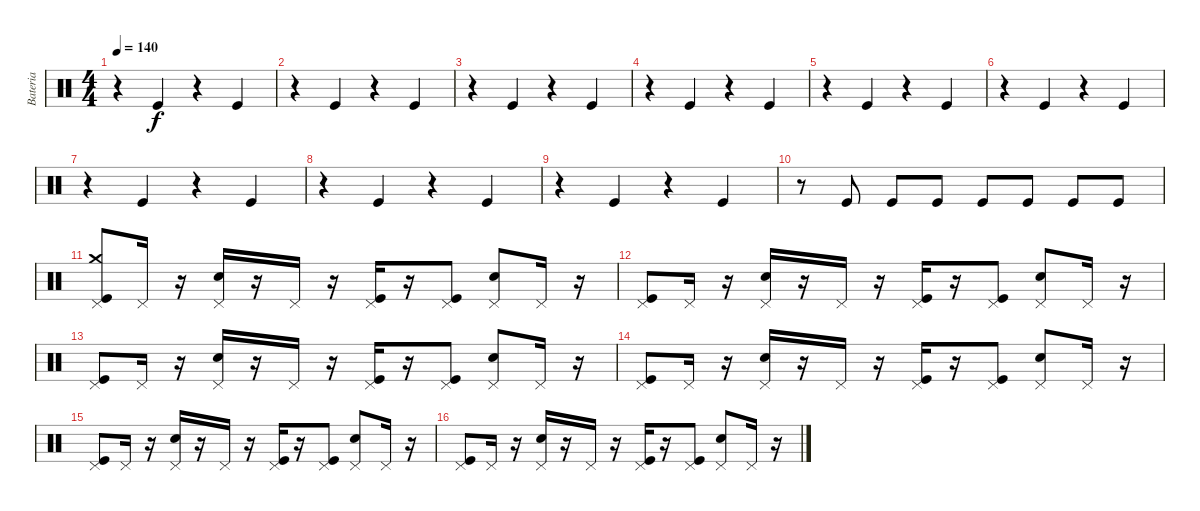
\track ("Bateria" "Bateria") {instrument percussion}
\staff {score}
\articulation defaults
\ts (4 4)
\tempo 140
\clef neutral
\ks c
r.4{dy f} "Kick (hit)".4 r.4 "Kick (hit)".4 |
r.4 "Kick (hit)".4 r.4 "Kick (hit)".4 |
r.4 "Kick (hit)".4 r.4 "Kick (hit)".4 |
r.4 "Kick (hit)".4 r.4 "Kick (hit)".4 |
r.4 "Kick (hit)".4 r.4 "Kick (hit)".4 |
r.4 "Kick (hit)".4 r.4 "Kick (hit)".4 |
r.4 "Kick (hit)".4 r.4 "Kick (hit)".4 |
r.4 "Kick (hit)".4 r.4 "Kick (hit)".4 |
r.4 "Kick (hit)".4 r.4 "Kick (hit)".4 |
r.8 "Kick (hit)".8 "Kick (hit)".8 "Kick (hit)".8 "Kick (hit)".8 "Kick (hit)".8 "Kick (hit)".8 "Kick (hit)".8 |
("Crash medium (hit)" "Pedal Hi-Hat (hit)" "Kick (hit)").8 "Pedal Hi-Hat (hit)".16 r.16 ("Pedal Hi-Hat (hit)" "Snare (hit) 2").16 r.16 "Pedal Hi-Hat (hit)".16 r.16 ("Pedal Hi-Hat (hit)" "Kick (hit)").16 r.16 ("Pedal Hi-Hat (hit)" "Kick (hit)").8 ("Pedal Hi-Hat (hit)" "Snare (hit) 2").8 "Pedal Hi-Hat (hit)".16 r.16 |
("Pedal Hi-Hat (hit)" "Kick (hit)").8 "Pedal Hi-Hat (hit)".16 r.16 ("Pedal Hi-Hat (hit)" "Snare (hit) 2").16 r.16 "Pedal Hi-Hat (hit)".16 r.16 ("Pedal Hi-Hat (hit)" "Kick (hit)").16 r.16 ("Pedal Hi-Hat (hit)" "Kick (hit)").8 ("Pedal Hi-Hat (hit)" "Snare (hit) 2").8 "Pedal Hi-Hat (hit)".16 r.16 |
("Pedal Hi-Hat (hit)" "Kick (hit)").8 "Pedal Hi-Hat (hit)".16 r.16 ("Pedal Hi-Hat (hit)" "Snare (hit) 2").16 r.16 "Pedal Hi-Hat (hit)".16 r.16 ("Pedal Hi-Hat (hit)" "Kick (hit)").16 r.16 ("Pedal Hi-Hat (hit)" "Kick (hit)").8 ("Pedal Hi-Hat (hit)" "Snare (hit) 2").8 "Pedal Hi-Hat (hit)".16 r.16 |
("Pedal Hi-Hat (hit)" "Kick (hit)").8 "Pedal Hi-Hat (hit)".16 r.16 ("Pedal Hi-Hat (hit)" "Snare (hit) 2").16 r.16 "Pedal Hi-Hat (hit)".16 r.16 ("Pedal Hi-Hat (hit)" "Kick (hit)").16 r.16 ("Pedal Hi-Hat (hit)" "Kick (hit)").8 ("Pedal Hi-Hat (hit)" "Snare (hit) 2").8 "Pedal Hi-Hat (hit)".16 r.16 |
("Pedal Hi-Hat (hit)" "Kick (hit)").8 "Pedal Hi-Hat (hit)".16 r.16 ("Pedal Hi-Hat (hit)" "Snare (hit) 2").16 r.16 "Pedal Hi-Hat (hit)".16 r.16 ("Pedal Hi-Hat (hit)" "Kick (hit)").16 r.16 ("Pedal Hi-Hat (hit)" "Kick (hit)").8 ("Pedal Hi-Hat (hit)" "Snare (hit) 2").8 "Pedal Hi-Hat (hit)".16 r.16 |
("Pedal Hi-Hat (hit)" "Kick (hit)").8 "Pedal Hi-Hat (hit)".16 r.16 ("Pedal Hi-Hat (hit)" "Snare (hit) 2").16 r.16 "Pedal Hi-Hat (hit)".16 r.16 ("Pedal Hi-Hat (hit)" "Kick (hit)").16 r.16 ("Pedal Hi-Hat (hit)" "Kick (hit)").8 ("Pedal Hi-Hat (hit)" "Snare (hit) 2").8 "Pedal Hi-Hat (hit)".16 r.16
